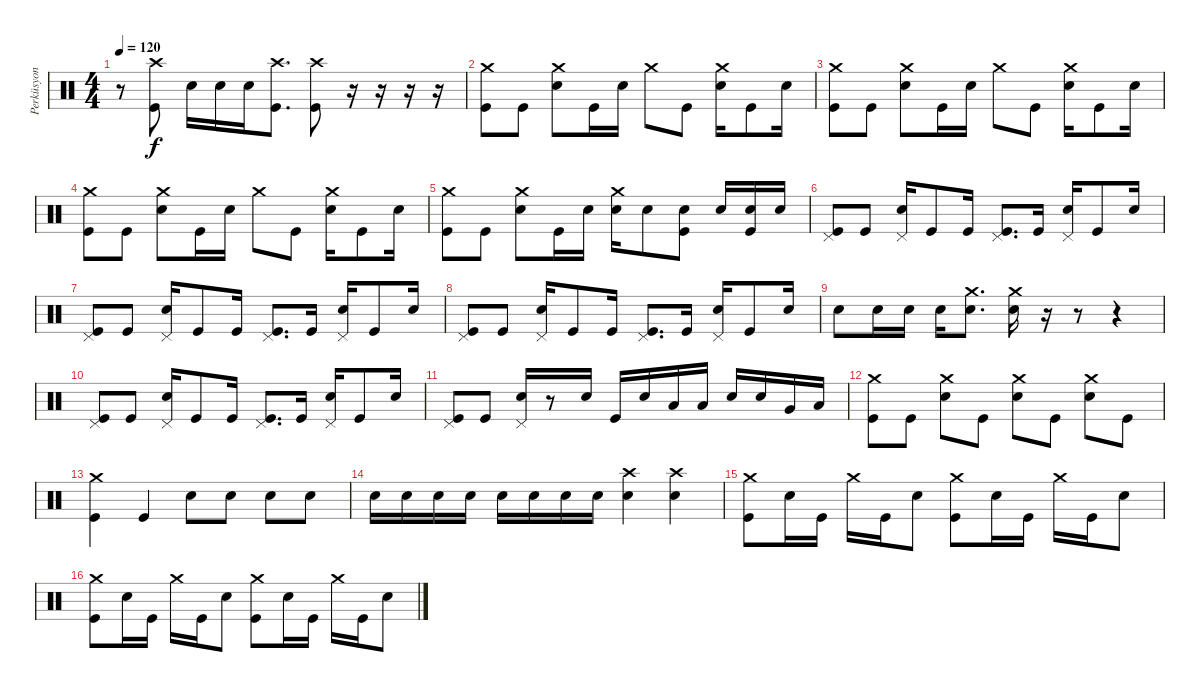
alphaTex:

\track ("Perküsyon" "Perküsyon") {instrument percussion}
\staff {score}
\articulation defaults
\ts (4 4)
\tempo 120
\clef neutral
\ks c
r.8{dy f} ("Kick (hit)" "Crash high (hit)").8 "Snare (hit) 2".16 "Snare (hit) 2".16 "Snare (hit) 2".16 ("Kick (hit)" "Crash high (hit)").8{d} ("Kick (hit)" "Crash high (hit)").8 r.16 r.16 r.16 r.16 |
("Kick (hit)" "Crash medium (hit)").8 "Kick (hit)".8 ("Snare (hit) 2" "Crash medium (hit)").8 "Kick (hit)".16 "Snare (hit) 2".16 "Crash medium (hit)".8 "Kick (hit)".8 ("Snare (hit) 2" "Crash medium (hit)").16 "Kick (hit)".8 "Snare (hit) 2".16 |
("Kick (hit)" "Crash medium (hit)").8 "Kick (hit)".8 ("Snare (hit) 2" "Crash medium (hit)").8 "Kick (hit)".16 "Snare (hit) 2".16 "Crash medium (hit)".8 "Kick (hit)".8 ("Snare (hit) 2" "Crash medium (hit)").16 "Kick (hit)".8 "Snare (hit) 2".16 |
("Kick (hit)" "Crash medium (hit)").8 "Kick (hit)".8 ("Snare (hit) 2" "Crash medium (hit)").8 "Kick (hit)".16 "Snare (hit) 2".16 "Crash medium (hit)".8 "Kick (hit)".8 ("Snare (hit) 2" "Crash medium (hit)").16 "Kick (hit)".8 "Snare (hit) 2".16 |
("Kick (hit)" "Crash medium (hit)").8 "Kick (hit)".8 ("Snare (hit) 2" "Crash medium (hit)").8 "Kick (hit)".16 "Snare (hit) 2".16 ("Snare (hit) 2" "Crash medium (hit)").16 "Snare (hit) 2".8 ("Kick (hit)" "Snare (hit) 2").8 "Snare (hit) 2".16 ("Kick (hit)" "Snare (hit) 2").16 "Snare (hit) 2".16 |
("Kick (hit)" "Pedal Hi-Hat (hit)").8 "Kick (hit)".8 ("Snare (hit) 2" "Pedal Hi-Hat (hit)").16 "Kick (hit)".8 "Kick (hit)".16 ("Kick (hit)" "Pedal Hi-Hat (hit)").8{d} "Kick (hit)".16 ("Snare (hit) 2" "Pedal Hi-Hat (hit)").16 "Kick (hit)".8 "Snare (hit) 2".16 |
("Kick (hit)" "Pedal Hi-Hat (hit)").8 "Kick (hit)".8 ("Snare (hit) 2" "Pedal Hi-Hat (hit)").16 "Kick (hit)".8 "Kick (hit)".16 ("Kick (hit)" "Pedal Hi-Hat (hit)").8{d} "Kick (hit)".16 ("Snare (hit) 2" "Pedal Hi-Hat (hit)").16 "Kick (hit)".8 "Snare (hit) 2".16 |
("Kick (hit)" "Pedal Hi-Hat (hit)").8 "Kick (hit)".8 ("Snare (hit) 2" "Pedal Hi-Hat (hit)").16 "Kick (hit)".8 "Kick (hit)".16 ("Kick (hit)" "Pedal Hi-Hat (hit)").8{d} "Kick (hit)".16 ("Snare (hit) 2" "Pedal Hi-Hat (hit)").16 "Kick (hit)".8 "Snare (hit) 2".16 |
"Snare (hit) 2".8 "Snare (hit) 2".16 "Snare (hit) 2".16 "Snare (hit) 2".16 ("Snare (hit) 2" "Crash medium (hit)").8{d} ("Snare (hit) 2" "Crash medium (hit)").16 r.16 r.8 r.4 |
("Kick (hit)" "Pedal Hi-Hat (hit)").8 "Kick (hit)".8 ("Snare (hit) 2" "Pedal Hi-Hat (hit)").16 "Kick (hit)".8 "Kick (hit)".16 ("Kick (hit)" "Pedal Hi-Hat (hit)").8{d} "Kick (hit)".16 ("Snare (hit) 2" "Pedal Hi-Hat (hit)").16 "Kick (hit)".8 "Snare (hit) 2".16 |
("Kick (hit)" "Pedal Hi-Hat (hit)").8 "Kick (hit)".8 ("Snare (hit) 2" "Pedal Hi-Hat (hit)").16 r.8 "Snare (hit) 2".16 "Kick (hit)".16 "Snare (hit) 2".16 "Low Tom (hit)".16 "Low Tom (hit)".16 "Snare (hit) 2".16 "Snare (hit) 2".16 "Very Low Tom (hit)".16 "Low Floor Tom (hit)".16 |
("Kick (hit)" "Crash medium (hit)").8 "Kick (hit)".8 ("Snare (hit) 2" "Crash medium (hit)").8 "Kick (hit)".8 ("Snare (hit) 2" "Crash medium (hit)").8 "Kick (hit)".8 ("Snare (hit) 2" "Crash medium (hit)").8 "Kick (hit)".8 |
("Kick (hit)" "Crash medium (hit)").4 "Kick (hit)".4 "Snare (hit) 2".8 "Snare (hit) 2".8 "Snare (hit) 2".8 "Snare (hit) 2".8 |
"Snare (hit) 2".16 "Snare (hit) 2".16 "Snare (hit) 2".16 "Snare (hit) 2".16 "Snare (hit) 2".16 "Snare (hit) 2".16 "Snare (hit) 2".16 "Snare (hit) 2".16 ("Snare (hit) 2" "Crash high (hit)").4 ("Snare (hit) 2" "Crash high (hit)").4 |
("Kick (hit)" "Crash medium (hit)").8 "Snare (hit) 2".16 "Kick (hit)".16 "Crash medium (hit)".16 "Kick (hit)".16 "Snare (hit) 2".8 ("Kick (hit)" "Crash medium (hit)").8 "Snare (hit) 2".16 "Kick (hit)".16 "Crash medium (hit)".16 "Kick (hit)".16 "Snare (hit) 2".8 |
("Kick (hit)" "Crash medium (hit)").8 "Snare (hit) 2".16 "Kick (hit)".16 "Crash medium (hit)".16 "Kick (hit)".16 "Snare (hit) 2".8 ("Kick (hit)" "Crash medium (hit)").8 "Snare (hit) 2".16 "Kick (hit)".16 "Crash medium (hit)".16 "Kick (hit)".16 "Snare (hit) 2".8
